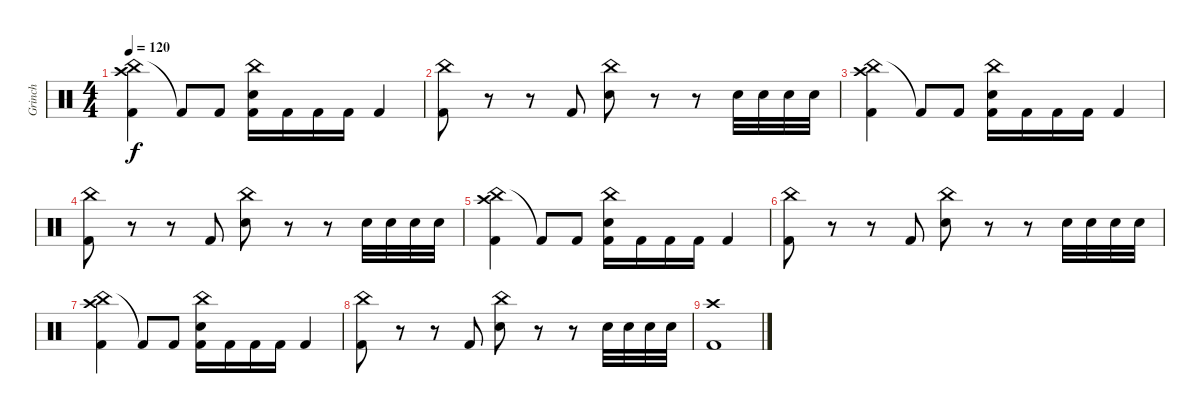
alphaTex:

\track ("Grinch" "Grinch") {instrument percussion}
\staff {score}
\articulation defaults
\ts (4 4)
\tempo 120
\clef neutral
\ks c
("China (hit)" "Crash high (hit)" "Kick (hit) 2").4{dy f} "Kick (hit) 2"{t}.8 "Kick (hit) 2".8 ("China (hit)" "Snare (hit) 2" "Kick (hit) 2").16 "Kick (hit) 2".16 "Kick (hit) 2".16 "Kick (hit) 2".16 "Kick (hit) 2".4 |
("China (hit)" "Kick (hit) 2").8 r.8 r.8 "Kick (hit) 2".8 ("China (hit)" "Snare (hit) 2").8 r.8 r.8 "Snare (hit) 2".32 "Snare (hit) 2".32 "Snare (hit) 2".32 "Snare (hit) 2".32 |
("China (hit)" "Crash high (hit)" "Kick (hit) 2").4 "Kick (hit) 2"{t}.8 "Kick (hit) 2".8 ("China (hit)" "Snare (hit) 2" "Kick (hit) 2").16 "Kick (hit) 2".16 "Kick (hit) 2".16 "Kick (hit) 2".16 "Kick (hit) 2".4 |
("China (hit)" "Kick (hit) 2").8 r.8 r.8 "Kick (hit) 2".8 ("China (hit)" "Snare (hit) 2").8 r.8 r.8 "Snare (hit) 2".32 "Snare (hit) 2".32 "Snare (hit) 2".32 "Snare (hit) 2".32 |
("China (hit)" "Crash high (hit)" "Kick (hit) 2").4 "Kick (hit) 2"{t}.8 "Kick (hit) 2".8 ("China (hit)" "Snare (hit) 2" "Kick (hit) 2").16 "Kick (hit) 2".16 "Kick (hit) 2".16 "Kick (hit) 2".16 "Kick (hit) 2".4 |
("China (hit)" "Kick (hit) 2").8 r.8 r.8 "Kick (hit) 2".8 ("China (hit)" "Snare (hit) 2").8 r.8 r.8 "Snare (hit) 2".32 "Snare (hit) 2".32 "Snare (hit) 2".32 "Snare (hit) 2".32 |
("China (hit)" "Crash high (hit)" "Kick (hit) 2").4 "Kick (hit) 2"{t}.8 "Kick (hit) 2".8 ("China (hit)" "Snare (hit) 2" "Kick (hit) 2").16 "Kick (hit) 2".16 "Kick (hit) 2".16 "Kick (hit) 2".16 "Kick (hit) 2".4 |
("China (hit)" "Kick (hit) 2").8 r.8 r.8 "Kick (hit) 2".8 ("China (hit)" "Snare (hit) 2").8 r.8 r.8 "Snare (hit) 2".32 "Snare (hit) 2".32 "Snare (hit) 2".32 "Snare (hit) 2".32 |
("Crash high (hit)" "Kick (hit) 2").1
